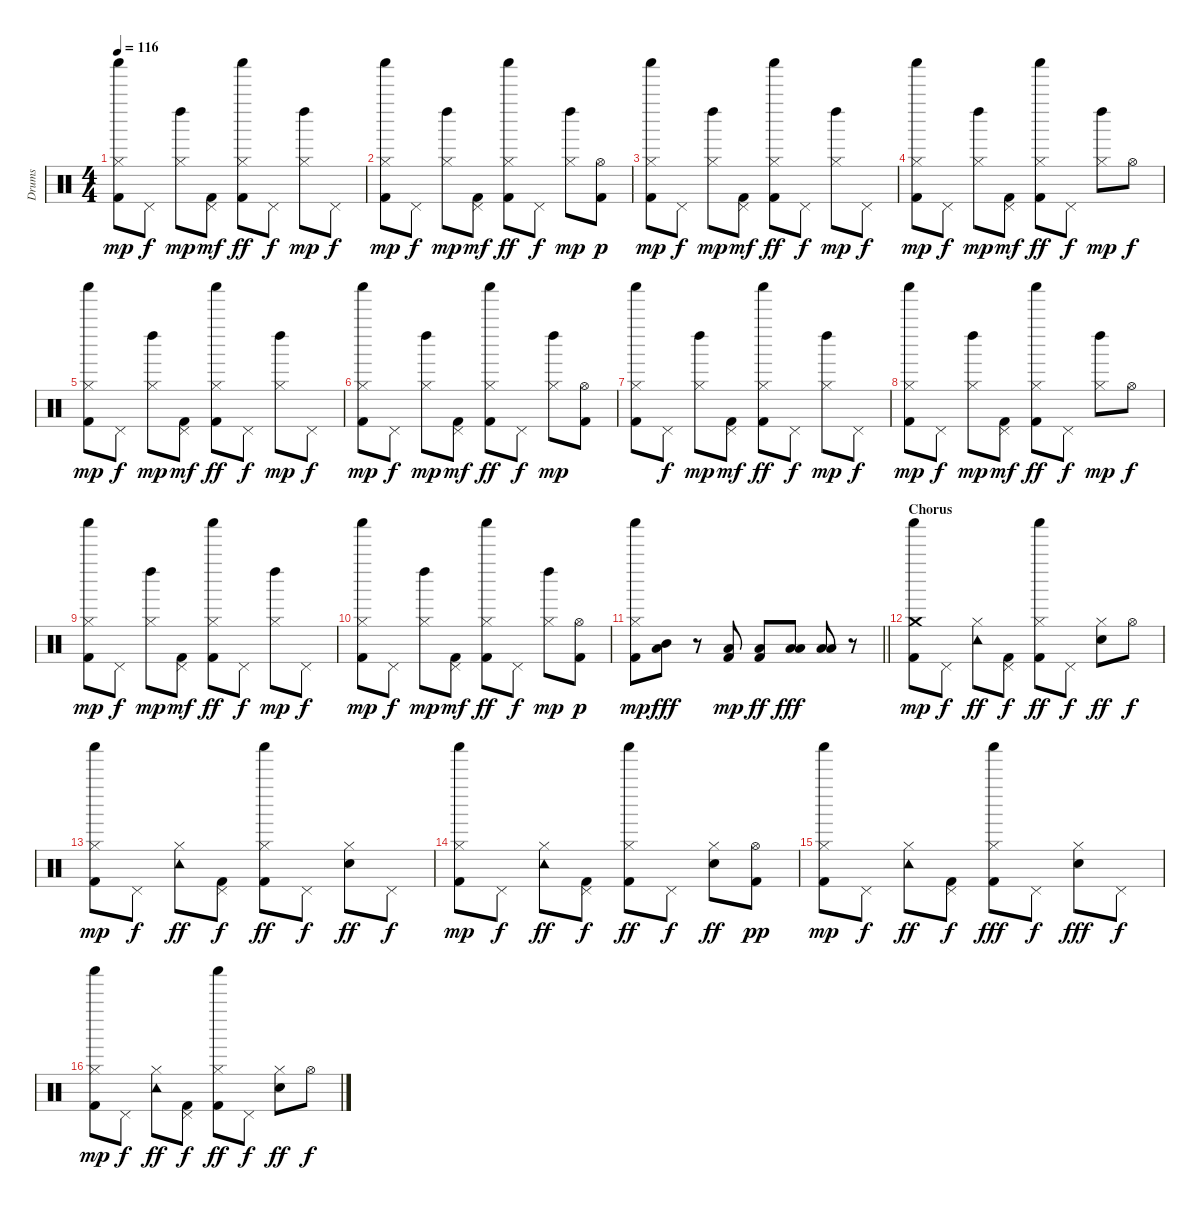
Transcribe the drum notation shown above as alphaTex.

\track ("Drums" "Drums") {instrument percussion}
\staff {score}
\articulation defaults
\ts (4 4)
\tempo 116
\clef neutral
\ks c
("Kick (hit) 2" "Hi-Hat (closed)" "Shaker (hit)").8{dy mp} "Pedal Hi-Hat (hit)".8{dy f} ("Hi-Hat (closed)" "Left Maraca (hit)").8{dy mp} ("Pedal Hi-Hat (hit)" "Kick (hit) 2").8{dy mf} ("Kick (hit) 2" "Shaker (hit)" "Hi-Hat (closed)").8{dy ff} "Pedal Hi-Hat (hit)".8{dy f} ("Hi-Hat (closed)" "Left Maraca (hit)").8{dy mp} "Pedal Hi-Hat (hit)".8{dy f} |
("Kick (hit) 2" "Hi-Hat (closed)" "Shaker (hit)").8{dy mp} "Pedal Hi-Hat (hit)".8{dy f} ("Hi-Hat (closed)" "Left Maraca (hit)").8{dy mp} ("Pedal Hi-Hat (hit)" "Kick (hit) 2").8{dy mf} ("Kick (hit) 2" "Shaker (hit)" "Hi-Hat (closed)").8{dy ff} "Pedal Hi-Hat (hit)".8{dy f} ("Hi-Hat (closed)" "Left Maraca (hit)").8{dy mp} ("Kick (hit) 2" "Hi-Hat (open)").8{dy p} |
("Kick (hit) 2" "Hi-Hat (closed)" "Shaker (hit)").8{dy mp} "Pedal Hi-Hat (hit)".8{dy f} ("Hi-Hat (closed)" "Left Maraca (hit)").8{dy mp} ("Pedal Hi-Hat (hit)" "Kick (hit) 2").8{dy mf} ("Kick (hit) 2" "Shaker (hit)" "Hi-Hat (closed)").8{dy ff} "Pedal Hi-Hat (hit)".8{dy f} ("Hi-Hat (closed)" "Left Maraca (hit)").8{dy mp} "Pedal Hi-Hat (hit)".8{dy f} |
("Kick (hit) 2" "Hi-Hat (closed)" "Shaker (hit)").8{dy mp} "Pedal Hi-Hat (hit)".8{dy f} ("Hi-Hat (closed)" "Left Maraca (hit)").8{dy mp} ("Pedal Hi-Hat (hit)" "Kick (hit) 2").8{dy mf} ("Kick (hit) 2" "Shaker (hit)" "Hi-Hat (closed)").8{dy ff} "Pedal Hi-Hat (hit)".8{dy f} ("Hi-Hat (closed)" "Left Maraca (hit)").8{dy mp} "Hi-Hat (open)".8{dy f} |
("Kick (hit) 2" "Hi-Hat (closed)" "Shaker (hit)").8{dy mp} "Pedal Hi-Hat (hit)".8{dy f} ("Hi-Hat (closed)" "Left Maraca (hit)").8{dy mp} ("Pedal Hi-Hat (hit)" "Kick (hit) 2").8{dy mf} ("Kick (hit) 2" "Shaker (hit)" "Hi-Hat (closed)").8{dy ff} "Pedal Hi-Hat (hit)".8{dy f} ("Hi-Hat (closed)" "Left Maraca (hit)").8{dy mp} "Pedal Hi-Hat (hit)".8{dy f} |
("Kick (hit) 2" "Hi-Hat (closed)" "Shaker (hit)").8{dy mp} "Pedal Hi-Hat (hit)".8{dy f} ("Hi-Hat (closed)" "Left Maraca (hit)").8{dy mp} ("Pedal Hi-Hat (hit)" "Kick (hit) 2").8{dy mf} ("Kick (hit) 2" "Shaker (hit)" "Hi-Hat (closed)").8{dy ff} "Pedal Hi-Hat (hit)".8{dy f} ("Hi-Hat (closed)" "Left Maraca (hit)").8{dy mp} ("Kick (hit) 2" "Hi-Hat (open)").8 |
("Kick (hit) 2" "Hi-Hat (closed)" "Shaker (hit)").8 "Pedal Hi-Hat (hit)".8{dy f} ("Hi-Hat (closed)" "Left Maraca (hit)").8{dy mp} ("Pedal Hi-Hat (hit)" "Kick (hit) 2").8{dy mf} ("Kick (hit) 2" "Shaker (hit)" "Hi-Hat (closed)").8{dy ff} "Pedal Hi-Hat (hit)".8{dy f} ("Hi-Hat (closed)" "Left Maraca (hit)").8{dy mp} "Pedal Hi-Hat (hit)".8{dy f} |
("Kick (hit) 2" "Hi-Hat (closed)" "Shaker (hit)").8{dy mp} "Pedal Hi-Hat (hit)".8{dy f} ("Hi-Hat (closed)" "Left Maraca (hit)").8{dy mp} ("Pedal Hi-Hat (hit)" "Kick (hit) 2").8{dy mf} ("Kick (hit) 2" "Shaker (hit)" "Hi-Hat (closed)").8{dy ff} "Pedal Hi-Hat (hit)".8{dy f} ("Hi-Hat (closed)" "Left Maraca (hit)").8{dy mp} "Hi-Hat (open)".8{dy f} |
("Kick (hit) 2" "Hi-Hat (closed)" "Shaker (hit)").8{dy mp} "Pedal Hi-Hat (hit)".8{dy f} ("Hi-Hat (closed)" "Left Maraca (hit)").8{dy mp} ("Pedal Hi-Hat (hit)" "Kick (hit) 2").8{dy mf} ("Kick (hit) 2" "Shaker (hit)" "Hi-Hat (closed)").8{dy ff} "Pedal Hi-Hat (hit)".8{dy f} ("Hi-Hat (closed)" "Left Maraca (hit)").8{dy mp} "Pedal Hi-Hat (hit)".8{dy f} |
("Kick (hit) 2" "Hi-Hat (closed)" "Shaker (hit)").8{dy mp} "Pedal Hi-Hat (hit)".8{dy f} ("Hi-Hat (closed)" "Left Maraca (hit)").8{dy mp} ("Pedal Hi-Hat (hit)" "Kick (hit) 2").8{dy mf} ("Kick (hit) 2" "Shaker (hit)" "Hi-Hat (closed)").8{dy ff} "Pedal Hi-Hat (hit)".8{dy f} ("Hi-Hat (closed)" "Left Maraca (hit)").8{dy mp} ("Kick (hit) 2" "Hi-Hat (open)").8{dy p} |
\barLineRight lightlight
("Kick (hit) 2" "Hi-Hat (closed)" "Shaker (hit)").8{dy mp} ("Mid Tom (hit)" "Low Tom (hit)").8{dy fff} r.8 ("Kick (hit) 2" "Low Floor Tom (hit)").8{dy mp} ("Kick (hit) 2" "Low Floor Tom (hit)").8{dy ff} ("Low Tom (hit)" "Low Floor Tom (hit)").8{dy fff} ("Low Tom (hit)" "Low Floor Tom (hit)").8 r.8 |
\section ("" "Chorus")
("Kick (hit) 2" "Crash medium (hit)" "Shaker (hit)").8{dy mp} "Pedal Hi-Hat (hit)".8{dy f} ("Hi-Hat (closed)" "Tambourine (hit)").8{dy ff} ("Pedal Hi-Hat (hit)" "Kick (hit) 2").8{dy f} ("Kick (hit) 2" "Shaker (hit)" "Hi-Hat (closed)").8{dy ff} "Pedal Hi-Hat (hit)".8{dy f} ("Snare (hit) 2" "Hi-Hat (closed)").8{dy ff} "Hi-Hat (open)".8{dy f} |
("Kick (hit) 2" "Hi-Hat (closed)" "Shaker (hit)").8{dy mp} "Pedal Hi-Hat (hit)".8{dy f} ("Hi-Hat (closed)" "Tambourine (hit)").8{dy ff} ("Pedal Hi-Hat (hit)" "Kick (hit) 2").8{dy f} ("Kick (hit) 2" "Shaker (hit)" "Hi-Hat (closed)").8{dy ff} "Pedal Hi-Hat (hit)".8{dy f} ("Hi-Hat (closed)" "Snare (hit) 2").8{dy ff} "Pedal Hi-Hat (hit)".8{dy f} |
("Kick (hit) 2" "Hi-Hat (closed)" "Shaker (hit)").8{dy mp} "Pedal Hi-Hat (hit)".8{dy f} ("Hi-Hat (closed)" "Tambourine (hit)").8{dy ff} ("Pedal Hi-Hat (hit)" "Kick (hit) 2").8{dy f} ("Kick (hit) 2" "Shaker (hit)" "Hi-Hat (closed)").8{dy ff} "Pedal Hi-Hat (hit)".8{dy f} ("Hi-Hat (closed)" "Snare (hit) 2").8{dy ff} ("Kick (hit) 2" "Hi-Hat (open)").8{dy pp} |
("Kick (hit) 2" "Hi-Hat (closed)" "Shaker (hit)").8{dy mp} "Pedal Hi-Hat (hit)".8{dy f} ("Hi-Hat (closed)" "Tambourine (hit)").8{dy ff} ("Pedal Hi-Hat (hit)" "Kick (hit) 2").8{dy f} ("Kick (hit) 2" "Shaker (hit)" "Hi-Hat (closed)").8{dy fff} "Pedal Hi-Hat (hit)".8{dy f} ("Snare (hit) 2" "Hi-Hat (closed)").8{dy fff} "Pedal Hi-Hat (hit)".8{dy f} |
("Kick (hit) 2" "Hi-Hat (closed)" "Shaker (hit)").8{dy mp} "Pedal Hi-Hat (hit)".8{dy f} ("Hi-Hat (closed)" "Tambourine (hit)").8{dy ff} ("Pedal Hi-Hat (hit)" "Kick (hit) 2").8{dy f} ("Kick (hit) 2" "Shaker (hit)" "Hi-Hat (closed)").8{dy ff} "Pedal Hi-Hat (hit)".8{dy f} ("Snare (hit) 2" "Hi-Hat (closed)").8{dy ff} "Hi-Hat (open)".8{dy f}
